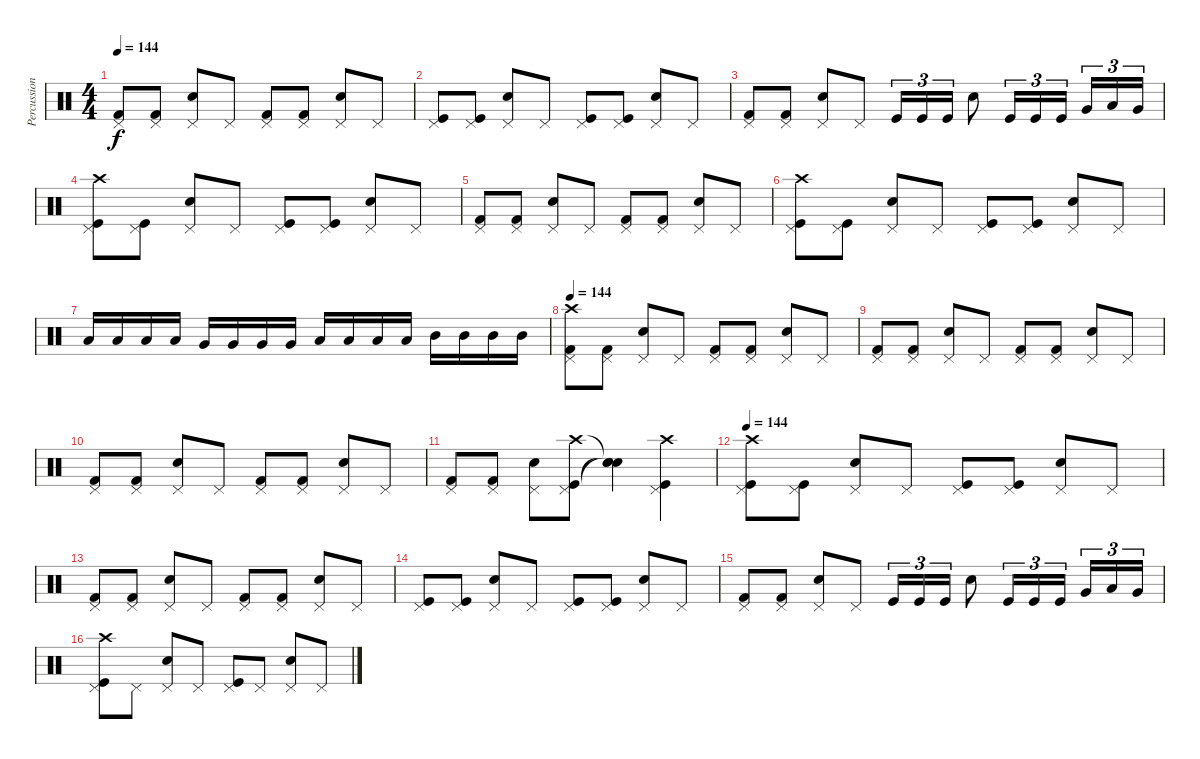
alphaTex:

\track ("Percussion" "Percussion") {instrument percussion}
\staff {score}
\articulation defaults
\ts (4 4)
\tempo 144
\clef neutral
\ks c
("Pedal Hi-Hat (hit)" "Kick (hit) 2").8{dy f} ("Pedal Hi-Hat (hit)" "Kick (hit) 2").8 ("Pedal Hi-Hat (hit)" "Snare (hit) 2").8 "Pedal Hi-Hat (hit)".8 ("Pedal Hi-Hat (hit)" "Kick (hit) 2").8 ("Pedal Hi-Hat (hit)" "Kick (hit) 2").8 ("Pedal Hi-Hat (hit)" "Snare (hit) 2").8 "Pedal Hi-Hat (hit)".8 |
("Pedal Hi-Hat (hit)" "Kick (hit)").8 ("Pedal Hi-Hat (hit)" "Kick (hit)").8 ("Pedal Hi-Hat (hit)" "Snare (hit) 2").8 "Pedal Hi-Hat (hit)".8 ("Pedal Hi-Hat (hit)" "Kick (hit)").8 ("Pedal Hi-Hat (hit)" "Kick (hit)").8 ("Pedal Hi-Hat (hit)" "Snare (hit) 2").8 "Pedal Hi-Hat (hit)".8 |
("Pedal Hi-Hat (hit)" "Kick (hit) 2").8 ("Pedal Hi-Hat (hit)" "Kick (hit) 2").8 ("Pedal Hi-Hat (hit)" "Snare (hit) 2").8 "Pedal Hi-Hat (hit)".8 "Kick (hit)".16{tu (3 2)} "Kick (hit)".16{tu (3 2)} "Kick (hit)".16{tu (3 2)} "Snare (hit) 2".8 "Kick (hit)".16{tu (3 2)} "Kick (hit)".16{tu (3 2)} "Kick (hit)".16{tu (3 2)} "Very Low Tom (hit)".16{tu (3 2)} "Low Floor Tom (hit)".16{tu (3 2)} "Very Low Tom (hit)".16{tu (3 2)} |
("Pedal Hi-Hat (hit)" "Kick (hit)" "Crash high (hit)").8 ("Pedal Hi-Hat (hit)" "Kick (hit)").8 ("Pedal Hi-Hat (hit)" "Snare (hit) 2").8 "Pedal Hi-Hat (hit)".8 ("Pedal Hi-Hat (hit)" "Kick (hit)").8 ("Pedal Hi-Hat (hit)" "Kick (hit)").8 ("Pedal Hi-Hat (hit)" "Snare (hit) 2").8 "Pedal Hi-Hat (hit)".8 |
("Pedal Hi-Hat (hit)" "Kick (hit) 2").8 ("Pedal Hi-Hat (hit)" "Kick (hit) 2").8 ("Pedal Hi-Hat (hit)" "Snare (hit) 2").8 "Pedal Hi-Hat (hit)".8 ("Pedal Hi-Hat (hit)" "Kick (hit) 2").8 ("Pedal Hi-Hat (hit)" "Kick (hit) 2").8 ("Pedal Hi-Hat (hit)" "Snare (hit) 2").8 "Pedal Hi-Hat (hit)".8 |
("Pedal Hi-Hat (hit)" "Kick (hit)" "Crash high (hit)").8 ("Pedal Hi-Hat (hit)" "Kick (hit)").8 ("Pedal Hi-Hat (hit)" "Snare (hit) 2").8 "Pedal Hi-Hat (hit)".8 ("Pedal Hi-Hat (hit)" "Kick (hit)").8 ("Pedal Hi-Hat (hit)" "Kick (hit)").8 ("Pedal Hi-Hat (hit)" "Snare (hit) 2").8 "Pedal Hi-Hat (hit)".8 |
"Low Floor Tom (hit)".16 "Low Floor Tom (hit)".16 "Low Floor Tom (hit)".16 "Low Floor Tom (hit)".16 "Very Low Tom (hit)".16 "Very Low Tom (hit)".16 "Very Low Tom (hit)".16 "Very Low Tom (hit)".16 "Low Tom (hit)".16 "Low Tom (hit)".16 "Low Tom (hit)".16 "Low Tom (hit)".16 "Mid Tom (hit)".16 "Mid Tom (hit)".16 "Mid Tom (hit)".16 "Mid Tom (hit)".16 |
\tempo 144
("Pedal Hi-Hat (hit)" "Kick (hit) 2" "Crash high (hit)").8 ("Pedal Hi-Hat (hit)" "Kick (hit) 2").8 ("Pedal Hi-Hat (hit)" "Snare (hit) 2").8 "Pedal Hi-Hat (hit)".8 ("Pedal Hi-Hat (hit)" "Kick (hit) 2").8 ("Pedal Hi-Hat (hit)" "Kick (hit) 2").8 ("Pedal Hi-Hat (hit)" "Snare (hit) 2").8 "Pedal Hi-Hat (hit)".8 |
("Pedal Hi-Hat (hit)" "Kick (hit) 2").8 ("Pedal Hi-Hat (hit)" "Kick (hit) 2").8 ("Pedal Hi-Hat (hit)" "Snare (hit) 2").8 "Pedal Hi-Hat (hit)".8 ("Pedal Hi-Hat (hit)" "Kick (hit) 2").8 ("Pedal Hi-Hat (hit)" "Kick (hit) 2").8 ("Pedal Hi-Hat (hit)" "Snare (hit) 2").8 "Pedal Hi-Hat (hit)".8 |
("Pedal Hi-Hat (hit)" "Kick (hit) 2").8 ("Pedal Hi-Hat (hit)" "Kick (hit) 2").8 ("Pedal Hi-Hat (hit)" "Snare (hit) 2").8 "Pedal Hi-Hat (hit)".8 ("Pedal Hi-Hat (hit)" "Kick (hit) 2").8 ("Pedal Hi-Hat (hit)" "Kick (hit) 2").8 ("Pedal Hi-Hat (hit)" "Snare (hit) 2").8 "Pedal Hi-Hat (hit)".8 |
("Pedal Hi-Hat (hit)" "Kick (hit) 2").8 ("Pedal Hi-Hat (hit)" "Kick (hit) 2").8 ("Pedal Hi-Hat (hit)" "Snare (hit) 2").8 ("Crash high (hit)" "Pedal Hi-Hat (hit)" "Kick (hit)").8 ("Snare (hit)"{t} "Snare (hit)"{t} "Snare (hit)"{t}).4 ("Crash high (hit)" "Pedal Hi-Hat (hit)" "Kick (hit)").4 |
\tempo 144
("Pedal Hi-Hat (hit)" "Kick (hit)" "Crash high (hit)").8 ("Pedal Hi-Hat (hit)" "Kick (hit)").8 ("Pedal Hi-Hat (hit)" "Snare (hit) 2").8 "Pedal Hi-Hat (hit)".8 ("Pedal Hi-Hat (hit)" "Kick (hit)").8 ("Pedal Hi-Hat (hit)" "Kick (hit)").8 ("Pedal Hi-Hat (hit)" "Snare (hit) 2").8 "Pedal Hi-Hat (hit)".8 |
("Pedal Hi-Hat (hit)" "Kick (hit) 2").8 ("Pedal Hi-Hat (hit)" "Kick (hit) 2").8 ("Pedal Hi-Hat (hit)" "Snare (hit) 2").8 "Pedal Hi-Hat (hit)".8 ("Pedal Hi-Hat (hit)" "Kick (hit) 2").8 ("Pedal Hi-Hat (hit)" "Kick (hit) 2").8 ("Pedal Hi-Hat (hit)" "Snare (hit) 2").8 "Pedal Hi-Hat (hit)".8 |
("Pedal Hi-Hat (hit)" "Kick (hit)").8 ("Pedal Hi-Hat (hit)" "Kick (hit)").8 ("Pedal Hi-Hat (hit)" "Snare (hit) 2").8 "Pedal Hi-Hat (hit)".8 ("Pedal Hi-Hat (hit)" "Kick (hit)").8 ("Pedal Hi-Hat (hit)" "Kick (hit)").8 ("Pedal Hi-Hat (hit)" "Snare (hit) 2").8 "Pedal Hi-Hat (hit)".8 |
("Pedal Hi-Hat (hit)" "Kick (hit) 2").8 ("Pedal Hi-Hat (hit)" "Kick (hit) 2").8 ("Pedal Hi-Hat (hit)" "Snare (hit) 2").8 "Pedal Hi-Hat (hit)".8 "Kick (hit)".16{tu (3 2)} "Kick (hit)".16{tu (3 2)} "Kick (hit)".16{tu (3 2)} "Snare (hit) 2".8 "Kick (hit)".16{tu (3 2)} "Kick (hit)".16{tu (3 2)} "Kick (hit)".16{tu (3 2)} "Very Low Tom (hit)".16{tu (3 2)} "Low Floor Tom (hit)".16{tu (3 2)} "Very Low Tom (hit)".16{tu (3 2)} |
("Pedal Hi-Hat (hit)" "Kick (hit)" "Crash high (hit)").8 "Pedal Hi-Hat (hit)".8 ("Pedal Hi-Hat (hit)" "Snare (hit) 2").8 "Pedal Hi-Hat (hit)".8 ("Pedal Hi-Hat (hit)" "Kick (hit)").8 "Pedal Hi-Hat (hit)".8 ("Pedal Hi-Hat (hit)" "Snare (hit) 2").8 "Pedal Hi-Hat (hit)".8
